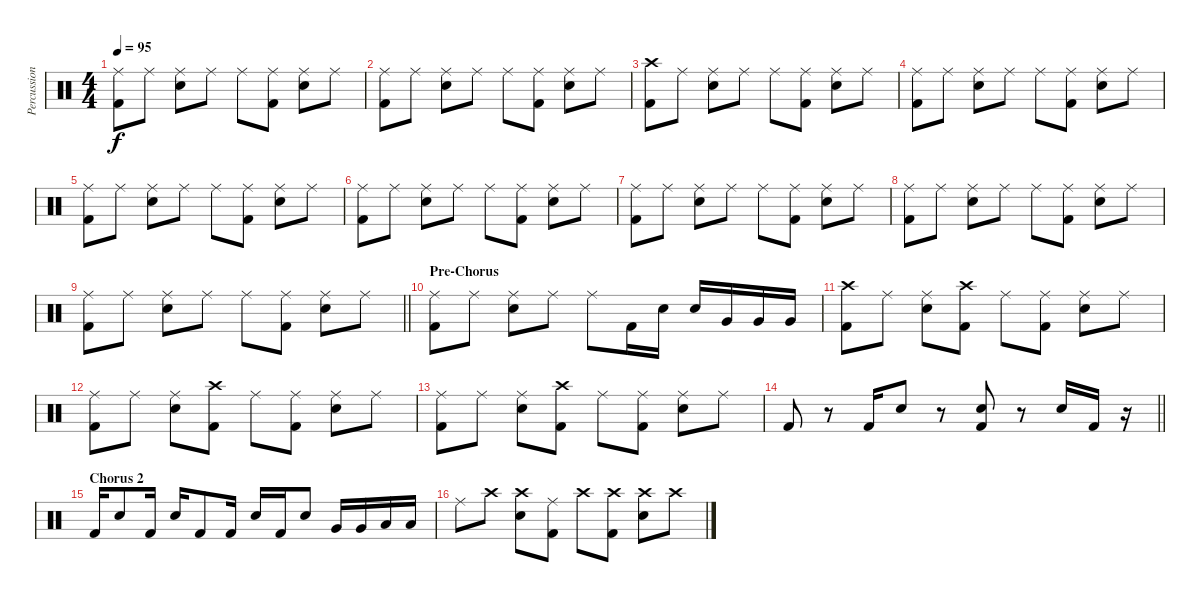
\track ("Percussion" "Percussion") {instrument percussion}
\staff {score}
\articulation defaults
\ts (4 4)
\tempo 95
\clef neutral
\ks c
("Ride (middle)" "Kick (hit) 2").8{dy f} "Ride (middle)".8 ("Ride (middle)" "Snare (hit) 2").8 "Ride (middle)".8 "Ride (middle)".8 ("Ride (middle)" "Kick (hit) 2").8 ("Ride (middle)" "Snare (hit) 2").8 "Ride (middle)".8 |
("Ride (middle)" "Kick (hit) 2").8 "Ride (middle)".8 ("Ride (middle)" "Snare (hit) 2").8 "Ride (middle)".8 "Ride (middle)".8 ("Ride (middle)" "Kick (hit) 2").8 ("Ride (middle)" "Snare (hit) 2").8 "Ride (middle)".8 |
("Crash high (hit)" "Kick (hit) 2").8 "Ride (middle)".8 ("Ride (middle)" "Snare (hit) 2").8 "Ride (middle)".8 "Ride (middle)".8 ("Ride (middle)" "Kick (hit) 2").8 ("Ride (middle)" "Snare (hit) 2").8 "Ride (middle)".8 |
("Ride (middle)" "Kick (hit) 2").8 "Ride (middle)".8 ("Ride (middle)" "Snare (hit) 2").8 "Ride (middle)".8 "Ride (middle)".8 ("Ride (middle)" "Kick (hit) 2").8 ("Ride (middle)" "Snare (hit) 2").8 "Ride (middle)".8 |
("Ride (middle)" "Kick (hit) 2").8 "Ride (middle)".8 ("Ride (middle)" "Snare (hit) 2").8 "Ride (middle)".8 "Ride (middle)".8 ("Ride (middle)" "Kick (hit) 2").8 ("Ride (middle)" "Snare (hit) 2").8 "Ride (middle)".8 |
("Ride (middle)" "Kick (hit) 2").8 "Ride (middle)".8 ("Ride (middle)" "Snare (hit) 2").8 "Ride (middle)".8 "Ride (middle)".8 ("Ride (middle)" "Kick (hit) 2").8 ("Ride (middle)" "Snare (hit) 2").8 "Ride (middle)".8 |
("Ride (middle)" "Kick (hit) 2").8 "Ride (middle)".8 ("Ride (middle)" "Snare (hit) 2").8 "Ride (middle)".8 "Ride (middle)".8 ("Ride (middle)" "Kick (hit) 2").8 ("Ride (middle)" "Snare (hit) 2").8 "Ride (middle)".8 |
("Ride (middle)" "Kick (hit) 2").8 "Ride (middle)".8 ("Ride (middle)" "Snare (hit) 2").8 "Ride (middle)".8 "Ride (middle)".8 ("Ride (middle)" "Kick (hit) 2").8 ("Ride (middle)" "Snare (hit) 2").8 "Ride (middle)".8 |
\barLineRight lightlight
("Ride (middle)" "Kick (hit) 2").8 "Ride (middle)".8 ("Ride (middle)" "Snare (hit) 2").8 "Ride (middle)".8 "Ride (middle)".8 ("Ride (middle)" "Kick (hit) 2").8 ("Ride (middle)" "Snare (hit) 2").8 "Ride (middle)".8 |
\section ("" "Pre-Chorus")
("Ride (middle)" "Kick (hit) 2").8 "Ride (middle)".8 ("Ride (middle)" "Snare (hit) 2").8 "Ride (middle)".8 "Ride (middle)".8 "Kick (hit) 2".16 "Snare (hit) 2".16 "Snare (hit) 2".16 "Very Low Tom (hit)".16 "Very Low Tom (hit)".16 "Very Low Tom (hit)".16 |
("Crash high (hit)" "Kick (hit) 2").8 "Ride (middle)".8 ("Ride (middle)" "Snare (hit) 2").8 ("Crash high (hit)" "Kick (hit) 2").8 "Ride (middle)".8 ("Ride (middle)" "Kick (hit) 2").8 ("Ride (middle)" "Snare (hit) 2").8 "Ride (middle)".8 |
("Ride (middle)" "Kick (hit) 2").8 "Ride (middle)".8 ("Ride (middle)" "Snare (hit) 2").8 ("Crash high (hit)" "Kick (hit) 2").8 "Ride (middle)".8 ("Ride (middle)" "Kick (hit) 2").8 ("Ride (middle)" "Snare (hit) 2").8 "Ride (middle)".8 |
("Ride (middle)" "Kick (hit) 2").8 "Ride (middle)".8 ("Ride (middle)" "Snare (hit) 2").8 ("Crash high (hit)" "Kick (hit) 2").8 "Ride (middle)".8 ("Ride (middle)" "Kick (hit) 2").8 ("Ride (middle)" "Snare (hit) 2").8 "Ride (middle)".8 |
\barLineRight lightlight "Kick (hit) 2".8
r.8 "Kick (hit) 2".16 "Snare (hit) 2".8 r.8 ("Snare (hit) 2" "Kick (hit) 2").8 r.8 "Snare (hit) 2".16 "Kick (hit) 2".16 r.16 |
\section ("" "Chorus 2")
"Kick (hit) 2".16 "Snare (hit) 2".8 "Kick (hit) 2".16 "Snare (hit) 2".16 "Kick (hit) 2".8 "Kick (hit) 2".16 "Snare (hit) 2".16 "Kick (hit) 2".16 "Snare (hit) 2".8 "Very Low Tom (hit)".16 "Very Low Tom (hit)".16 "Low Floor Tom (hit)".16 "Low Floor Tom (hit)".16 |
"Ride (middle)".8 "Crash high (hit)".8 ("Crash high (hit)" "Snare (hit) 2").8 ("Ride (middle)" "Kick (hit) 2").8 "Crash high (hit)".8 ("Crash high (hit)" "Kick (hit) 2").8 ("Crash high (hit)" "Snare (hit) 2").8 "Crash high (hit)".8
